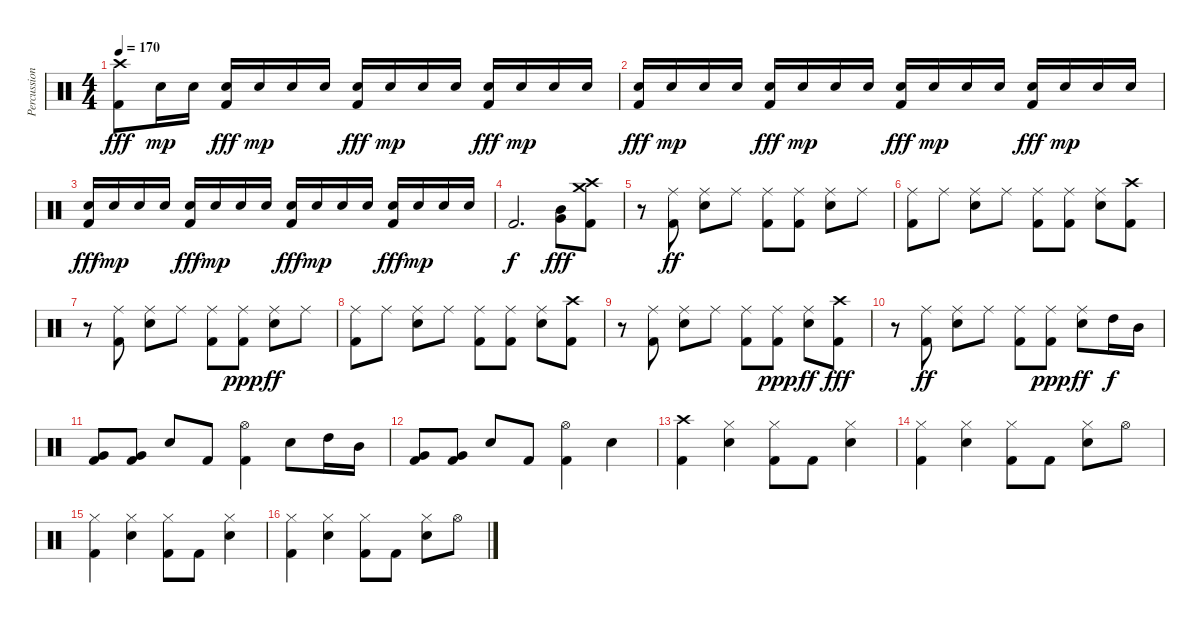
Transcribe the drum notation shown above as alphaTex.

\track ("Percussion" "Percussion") {instrument percussion}
\staff {score}
\articulation defaults
\ts (4 4)
\tempo 170
\clef neutral
\ks c
("Crash high (hit)" "Kick (hit) 2").8{dy fff} "Snare (hit) 2".16{dy mp} "Snare (hit) 2".16 ("Snare (hit) 2" "Kick (hit) 2").16{dy fff} "Snare (hit) 2".16{dy mp} "Snare (hit) 2".16 "Snare (hit) 2".16 ("Snare (hit) 2" "Kick (hit) 2").16{dy fff} "Snare (hit) 2".16{dy mp} "Snare (hit) 2".16 "Snare (hit) 2".16 ("Snare (hit) 2" "Kick (hit) 2").16{dy fff} "Snare (hit) 2".16{dy mp} "Snare (hit) 2".16 "Snare (hit) 2".16 |
("Snare (hit) 2" "Kick (hit) 2").16{dy fff} "Snare (hit) 2".16{dy mp} "Snare (hit) 2".16 "Snare (hit) 2".16 ("Snare (hit) 2" "Kick (hit) 2").16{dy fff} "Snare (hit) 2".16{dy mp} "Snare (hit) 2".16 "Snare (hit) 2".16 ("Snare (hit) 2" "Kick (hit) 2").16{dy fff} "Snare (hit) 2".16{dy mp} "Snare (hit) 2".16 "Snare (hit) 2".16 ("Snare (hit) 2" "Kick (hit) 2").16{dy fff} "Snare (hit) 2".16{dy mp} "Snare (hit) 2".16 "Snare (hit) 2".16 |
("Snare (hit) 2" "Kick (hit) 2").16{dy fff} "Snare (hit) 2".16{dy mp} "Snare (hit) 2".16 "Snare (hit) 2".16 ("Snare (hit) 2" "Kick (hit) 2").16{dy fff} "Snare (hit) 2".16{dy mp} "Snare (hit) 2".16 "Snare (hit) 2".16 ("Snare (hit) 2" "Kick (hit) 2").16{dy fff} "Snare (hit) 2".16{dy mp} "Snare (hit) 2".16 "Snare (hit) 2".16 ("Snare (hit) 2" "Kick (hit) 2").16{dy fff} "Snare (hit) 2".16{dy mp} "Snare (hit) 2".16 "Snare (hit) 2".16 |
"Kick (hit) 2".2{d dy f} ("Very Low Tom (hit)" "Mid Tom (hit)").8{dy fff} ("Crash medium (hit)" "Crash high (hit)" "Kick (hit) 2").8 |
r.8 ("Ride (middle)" "Kick (hit) 2").8{dy ff} ("Ride (middle)" "Snare (hit) 2").8 "Ride (middle)".8 ("Ride (middle)" "Kick (hit) 2").8 ("Ride (middle)" "Kick (hit) 2").8 ("Ride (middle)" "Snare (hit) 2").8 "Ride (middle)".8 |
("Ride (middle)" "Kick (hit) 2").8 "Ride (middle)".8 ("Ride (middle)" "Snare (hit) 2").8 "Ride (middle)".8 ("Ride (middle)" "Kick (hit) 2").8 ("Ride (middle)" "Kick (hit) 2").8 ("Ride (middle)" "Snare (hit) 2").8 ("Crash high (hit)" "Kick (hit) 2").8 |
r.8 ("Ride (middle)" "Kick (hit) 2").8 ("Ride (middle)" "Snare (hit) 2").8 "Ride (middle)".8 ("Ride (middle)" "Kick (hit) 2").8 ("Ride (middle)" "Kick (hit) 2").8{dy ppp} ("Ride (middle)" "Snare (hit) 2").8{dy ff} "Ride (middle)".8 |
("Ride (middle)" "Kick (hit) 2").8 "Ride (middle)".8 ("Ride (middle)" "Snare (hit) 2").8 "Ride (middle)".8 ("Ride (middle)" "Kick (hit) 2").8 ("Ride (middle)" "Kick (hit) 2").8 ("Ride (middle)" "Snare (hit) 2").8 ("Crash high (hit)" "Kick (hit) 2").8 |
r.8 ("Ride (middle)" "Kick (hit) 2").8 ("Ride (middle)" "Snare (hit) 2").8 "Ride (middle)".8 ("Ride (middle)" "Kick (hit) 2").8 ("Ride (middle)" "Kick (hit) 2").8{dy ppp} ("Ride (middle)" "Snare (hit) 2").8{dy ff} ("Crash high (hit)" "Kick (hit) 2").8{dy fff} |
r.8 ("Ride (middle)" "Kick (hit) 2").8{dy ff} ("Ride (middle)" "Snare (hit) 2").8 "Ride (middle)".8 ("Ride (middle)" "Kick (hit) 2").8 ("Ride (middle)" "Kick (hit) 2").8{dy ppp} ("Ride (middle)" "Snare (hit) 2").8{dy ff} "High Tom (hit)".16{dy f} "Mid Tom (hit)".16 |
("Very Low Tom (hit)" "Kick (hit) 2").8 ("Very Low Tom (hit)" "Kick (hit) 2").8 "Snare (hit) 2".8 "Kick (hit) 2".8 ("Kick (hit) 2" "Hi-Hat (open)").4 "Snare (hit) 2".8 "High Tom (hit)".16 "Mid Tom (hit)".16 |
("Very Low Tom (hit)" "Kick (hit) 2").8 ("Very Low Tom (hit)" "Kick (hit) 2").8 "Snare (hit) 2".8 "Kick (hit) 2".8 ("Kick (hit) 2" "Hi-Hat (open)").4 "Snare (hit) 2".4 |
("Crash high (hit)" "Kick (hit) 2").4 ("Hi-Hat (closed)" "Snare (hit) 2").4 ("Hi-Hat (closed)" "Kick (hit) 2").8 "Kick (hit) 2".8 ("Hi-Hat (closed)" "Snare (hit) 2").4 |
("Hi-Hat (closed)" "Kick (hit) 2").4 ("Hi-Hat (closed)" "Snare (hit) 2").4 ("Hi-Hat (closed)" "Kick (hit) 2").8 "Kick (hit) 2".8 ("Hi-Hat (closed)" "Snare (hit) 2").8 "Hi-Hat (open)".8 |
("Hi-Hat (closed)" "Kick (hit) 2").4 ("Hi-Hat (closed)" "Snare (hit) 2").4 ("Hi-Hat (closed)" "Kick (hit) 2").8 "Kick (hit) 2".8 ("Hi-Hat (closed)" "Snare (hit) 2").4 |
("Hi-Hat (closed)" "Kick (hit) 2").4 ("Hi-Hat (closed)" "Snare (hit) 2").4 ("Hi-Hat (closed)" "Kick (hit) 2").8 "Kick (hit) 2".8 ("Hi-Hat (closed)" "Snare (hit) 2").8 "Hi-Hat (open)".8
